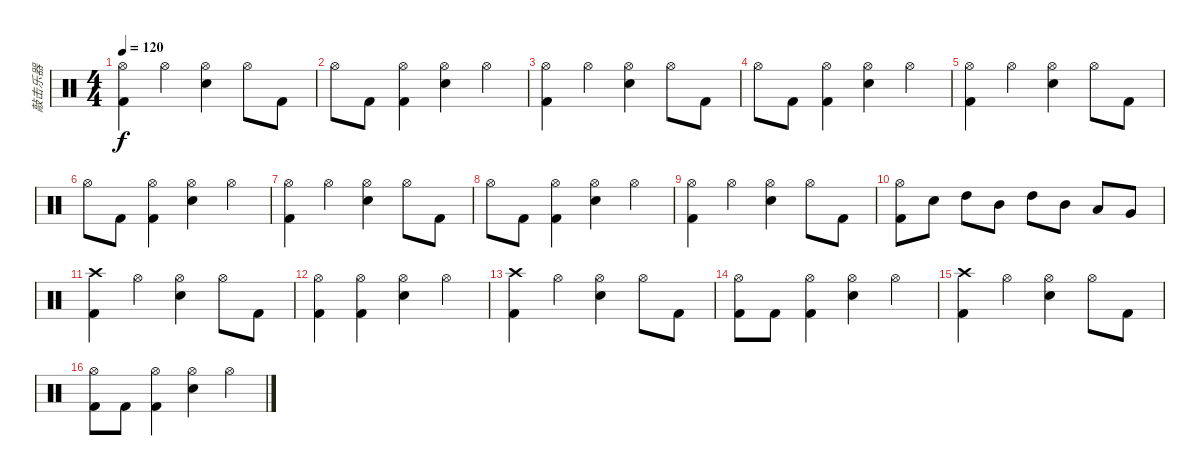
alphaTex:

\track ("敲击乐器" "敲击乐器") {instrument percussion}
\staff {score}
\articulation defaults
\ts (4 4)
\tempo 120
\clef neutral
\ks c
("Hi-Hat (open)" "Kick (hit) 2").4{dy f} "Hi-Hat (open)".4 ("Hi-Hat (open)" "Snare (hit) 2").4 "Hi-Hat (open)".8 "Kick (hit) 2".8 |
"Hi-Hat (open)".8 "Kick (hit) 2".8 ("Hi-Hat (open)" "Kick (hit) 2").4 ("Hi-Hat (open)" "Snare (hit) 2").4 "Hi-Hat (open)".4 |
("Hi-Hat (open)" "Kick (hit) 2").4 "Hi-Hat (open)".4 ("Hi-Hat (open)" "Snare (hit) 2").4 "Hi-Hat (open)".8 "Kick (hit) 2".8 |
"Hi-Hat (open)".8 "Kick (hit) 2".8 ("Hi-Hat (open)" "Kick (hit) 2").4 ("Hi-Hat (open)" "Snare (hit) 2").4 "Hi-Hat (open)".4 |
("Hi-Hat (open)" "Kick (hit) 2").4 "Hi-Hat (open)".4 ("Hi-Hat (open)" "Snare (hit) 2").4 "Hi-Hat (open)".8 "Kick (hit) 2".8 |
"Hi-Hat (open)".8 "Kick (hit) 2".8 ("Hi-Hat (open)" "Kick (hit) 2").4 ("Hi-Hat (open)" "Snare (hit) 2").4 "Hi-Hat (open)".4 |
("Hi-Hat (open)" "Kick (hit) 2").4 "Hi-Hat (open)".4 ("Hi-Hat (open)" "Snare (hit) 2").4 "Hi-Hat (open)".8 "Kick (hit) 2".8 |
"Hi-Hat (open)".8 "Kick (hit) 2".8 ("Hi-Hat (open)" "Kick (hit) 2").4 ("Hi-Hat (open)" "Snare (hit) 2").4 "Hi-Hat (open)".4 |
("Hi-Hat (open)" "Kick (hit) 2").4 "Hi-Hat (open)".4 ("Hi-Hat (open)" "Snare (hit) 2").4 "Hi-Hat (open)".8 "Kick (hit) 2".8 |
("Hi-Hat (open)" "Kick (hit) 2").8 "Snare (hit) 2".8 "High Tom (hit)".8 "Mid Tom (hit)".8 "High Tom (hit)".8 "Mid Tom (hit)".8 "Low Tom (hit)".8 "Very Low Tom (hit)".8 |
("Crash high (hit)" "Kick (hit) 2").4 "Hi-Hat (open)".4 ("Hi-Hat (open)" "Snare (hit) 2").4 "Hi-Hat (open)".8 "Kick (hit) 2".8 |
("Hi-Hat (open)" "Kick (hit) 2").4 ("Hi-Hat (open)" "Kick (hit) 2").4 ("Hi-Hat (open)" "Snare (hit) 2").4 "Hi-Hat (open)".4 |
("Crash high (hit)" "Kick (hit) 2").4 "Hi-Hat (open)".4 ("Hi-Hat (open)" "Snare (hit) 2").4 "Hi-Hat (open)".8 "Kick (hit) 2".8 |
("Hi-Hat (open)" "Kick (hit) 2").8 "Kick (hit) 2".8 ("Hi-Hat (open)" "Kick (hit) 2").4 ("Hi-Hat (open)" "Snare (hit) 2").4 "Hi-Hat (open)".4 |
("Crash high (hit)" "Kick (hit) 2").4 "Hi-Hat (open)".4 ("Hi-Hat (open)" "Snare (hit) 2").4 "Hi-Hat (open)".8 "Kick (hit) 2".8 |
("Hi-Hat (open)" "Kick (hit) 2").8 "Kick (hit) 2".8 ("Hi-Hat (open)" "Kick (hit) 2").4 ("Hi-Hat (open)" "Snare (hit) 2").4 "Hi-Hat (open)".4
